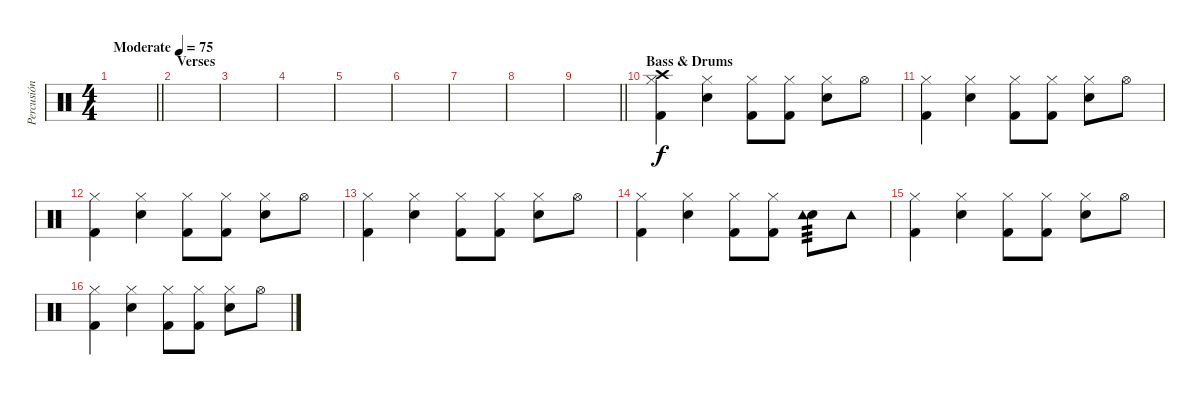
\track ("Percusión" "Percusión") {solo instrument percussion}
\staff {score}
\articulation defaults
\ts (4 4)
\tempo (75 "Moderate")
\clef neutral
\barLineRight lightlight
\ks c
|
\section ("" "Verses")
|
|
|
|
|
|
|
\barLineRight lightlight
|
\section ("" "Bass & Drums")
("Crash high (hit)" "Kick (hit) 2" "Hi-Hat (closed)").4 ("Electric Snare (hit)" "Hi-Hat (closed)").4 ("Kick (hit) 2" "Hi-Hat (closed)").8 ("Kick (hit) 2" "Hi-Hat (closed)").8 ("Electric Snare (hit)" "Hi-Hat (closed)").8 "Hi-Hat (open)".8 |
("Kick (hit) 2" "Hi-Hat (closed)").4 ("Electric Snare (hit)" "Hi-Hat (closed)").4 ("Kick (hit) 2" "Hi-Hat (closed)").8 ("Kick (hit) 2" "Hi-Hat (closed)").8 ("Electric Snare (hit)" "Hi-Hat (closed)").8 "Hi-Hat (open)".8 |
("Kick (hit) 2" "Hi-Hat (closed)").4 ("Electric Snare (hit)" "Hi-Hat (closed)").4 ("Kick (hit) 2" "Hi-Hat (closed)").8 ("Kick (hit) 2" "Hi-Hat (closed)").8 ("Electric Snare (hit)" "Hi-Hat (closed)").8 "Hi-Hat (open)".8 |
("Kick (hit) 2" "Hi-Hat (closed)").4 ("Electric Snare (hit)" "Hi-Hat (closed)").4 ("Kick (hit) 2" "Hi-Hat (closed)").8 ("Kick (hit) 2" "Hi-Hat (closed)").8 ("Electric Snare (hit)" "Hi-Hat (closed)").8 "Hi-Hat (open)".8 |
("Kick (hit) 2" "Hi-Hat (closed)").4 ("Electric Snare (hit)" "Hi-Hat (closed)").4 ("Kick (hit) 2" "Hi-Hat (closed)").8 ("Kick (hit) 2" "Hi-Hat (closed)").8 ("Electric Snare (hit)" "Tambourine (hit)").8{tp 3} "Tambourine (hit)".8 |
("Kick (hit) 2" "Hi-Hat (closed)").4 ("Electric Snare (hit)" "Hi-Hat (closed)").4 ("Kick (hit) 2" "Hi-Hat (closed)").8 ("Kick (hit) 2" "Hi-Hat (closed)").8 ("Electric Snare (hit)" "Hi-Hat (closed)").8 "Hi-Hat (open)".8 |
("Kick (hit) 2" "Hi-Hat (closed)").4 ("Electric Snare (hit)" "Hi-Hat (closed)").4 ("Kick (hit) 2" "Hi-Hat (closed)").8 ("Kick (hit) 2" "Hi-Hat (closed)").8 ("Electric Snare (hit)" "Hi-Hat (closed)").8 "Hi-Hat (open)".8
